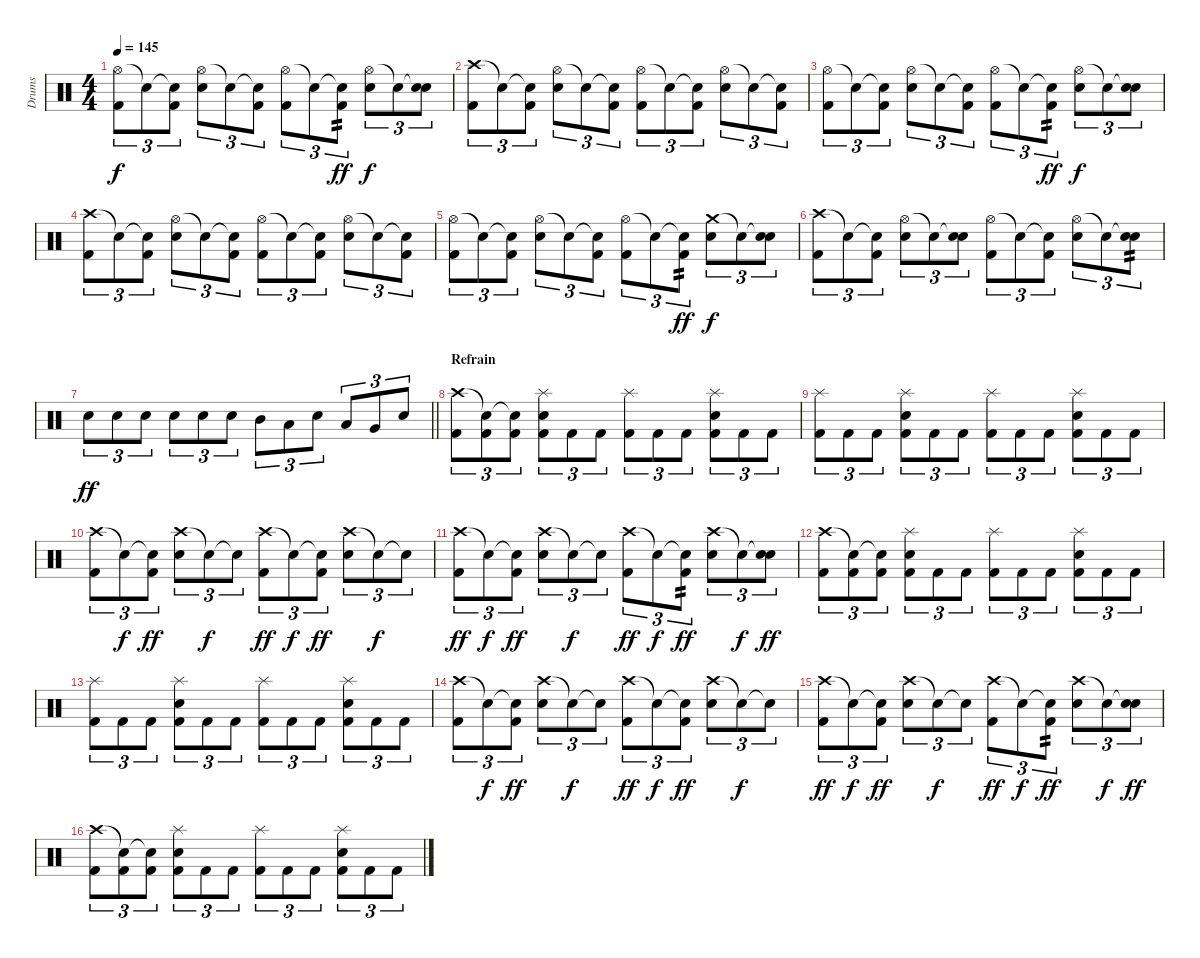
\track ("Drums" "Drums") {instrument percussion}
\staff {score}
\articulation defaults
\ts (4 4)
\tempo 145
\clef neutral
\ks c
("Hi-Hat (open)" "Kick (hit) 2").8{tu (3 2) dy f} "Snare (hit)"{t}.8{tu (3 2)} ("Snare (hit)"{t} "Kick (hit) 2").8{tu (3 2)} ("Hi-Hat (open)" "Snare (hit) 2").8{tu (3 2)} "Snare (hit)"{t}.8{tu (3 2)} ("Snare (hit)"{t} "Kick (hit) 2").8{tu (3 2)} ("Hi-Hat (open)" "Kick (hit) 2").8{tu (3 2)} "Snare (hit)"{t}.8{tu (3 2)} ("Snare (hit)"{t} "Kick (hit) 2").8{tu (3 2) tp 2 dy ff} ("Hi-Hat (open)" "Snare (hit) 2").8{tu (3 2) dy f} "Snare (hit)"{t}.8{tu (3 2)} ("Snare (hit)"{t} "Snare (hit) 2").8{tu (3 2)} |
("Crash high (hit)" "Kick (hit) 2").8{tu (3 2)} "Snare (hit)"{t}.8{tu (3 2)} ("Snare (hit)"{t} "Kick (hit) 2").8{tu (3 2)} ("Hi-Hat (open)" "Snare (hit) 2").8{tu (3 2)} "Snare (hit)"{t}.8{tu (3 2)} ("Snare (hit)"{t} "Kick (hit) 2").8{tu (3 2)} ("Hi-Hat (open)" "Kick (hit) 2").8{tu (3 2)} "Snare (hit)"{t}.8{tu (3 2)} ("Snare (hit)"{t} "Kick (hit) 2").8{tu (3 2)} ("Hi-Hat (open)" "Snare (hit) 2").8{tu (3 2)} "Snare (hit)"{t}.8{tu (3 2)} ("Snare (hit)"{t} "Kick (hit) 2").8{tu (3 2)} |
("Hi-Hat (open)" "Kick (hit) 2").8{tu (3 2)} "Snare (hit)"{t}.8{tu (3 2)} ("Snare (hit)"{t} "Kick (hit) 2").8{tu (3 2)} ("Hi-Hat (open)" "Snare (hit) 2").8{tu (3 2)} "Snare (hit)"{t}.8{tu (3 2)} ("Snare (hit)"{t} "Kick (hit) 2").8{tu (3 2)} ("Hi-Hat (open)" "Kick (hit) 2").8{tu (3 2)} "Snare (hit)"{t}.8{tu (3 2)} ("Snare (hit)"{t} "Kick (hit) 2").8{tu (3 2) tp 2 dy ff} ("Hi-Hat (open)" "Snare (hit) 2").8{tu (3 2) dy f} "Snare (hit)"{t}.8{tu (3 2)} ("Snare (hit)"{t} "Snare (hit) 2").8{tu (3 2)} |
("Crash high (hit)" "Kick (hit) 2").8{tu (3 2)} "Snare (hit)"{t}.8{tu (3 2)} ("Snare (hit)"{t} "Kick (hit) 2").8{tu (3 2)} ("Hi-Hat (open)" "Snare (hit) 2").8{tu (3 2)} "Snare (hit)"{t}.8{tu (3 2)} ("Snare (hit)"{t} "Kick (hit) 2").8{tu (3 2)} ("Hi-Hat (open)" "Kick (hit) 2").8{tu (3 2)} "Snare (hit)"{t}.8{tu (3 2)} ("Snare (hit)"{t} "Kick (hit) 2").8{tu (3 2)} ("Hi-Hat (open)" "Snare (hit) 2").8{tu (3 2)} "Snare (hit)"{t}.8{tu (3 2)} ("Snare (hit)"{t} "Kick (hit) 2").8{tu (3 2)} |
("Hi-Hat (open)" "Kick (hit) 2").8{tu (3 2)} "Snare (hit)"{t}.8{tu (3 2)} ("Snare (hit)"{t} "Kick (hit) 2").8{tu (3 2)} ("Hi-Hat (open)" "Snare (hit) 2").8{tu (3 2)} "Snare (hit)"{t}.8{tu (3 2)} ("Snare (hit)"{t} "Kick (hit) 2").8{tu (3 2)} ("Hi-Hat (open)" "Kick (hit) 2").8{tu (3 2)} "Snare (hit)"{t}.8{tu (3 2)} ("Snare (hit)"{t} "Kick (hit) 2").8{tu (3 2) tp 2 dy ff} ("Crash medium (hit)" "Snare (hit) 2").8{tu (3 2) dy f} "Snare (hit)"{t}.8{tu (3 2)} ("Snare (hit)"{t} "Snare (hit) 2").8{tu (3 2)} |
("Crash high (hit)" "Kick (hit) 2").8{tu (3 2)} "Snare (hit)"{t}.8{tu (3 2)} ("Snare (hit)"{t} "Kick (hit) 2").8{tu (3 2)} ("Hi-Hat (open)" "Snare (hit) 2").8{tu (3 2)} "Snare (hit)"{t}.8{tu (3 2)} ("Snare (hit)"{t} "Snare (hit) 2").8{tu (3 2)} ("Hi-Hat (open)" "Kick (hit) 2").8{tu (3 2)} "Snare (hit)"{t}.8{tu (3 2)} ("Snare (hit)"{t} "Kick (hit) 2").8{tu (3 2)} ("Hi-Hat (open)" "Snare (hit) 2").8{tu (3 2)} "Snare (hit)"{t}.8{tu (3 2)} ("Snare (hit)"{t} "Electric Snare (hit)").8{tu (3 2) tp 2} |
\barLineRight lightlight "Electric Snare (hit)".8{tu (3 2) dy ff} "Electric Snare (hit)".8{tu (3 2)} "Electric Snare (hit)".8{tu (3 2)} "Electric Snare (hit)".8{tu (3 2)} "Electric Snare (hit)".8{tu (3 2)} "Electric Snare (hit)".8{tu (3 2)} "Mid Tom (hit)".8{tu (3 2)} "Low Tom (hit)".8{tu (3 2)} "Electric Snare (hit)".8{tu (3 2)} "Low Tom (hit)".8{tu (3 2)} "Very Low Tom (hit)".8{tu (3 2)} "Electric Snare (hit)".8{tu (3 2)}
|
\section ("" "Refrain")
("Crash high (hit)" "Kick (hit) 2").8{tu (3 2)} ("Snare (hit)"{t} "Kick (hit) 2").8{tu (3 2)} ("Snare (hit)"{t} "Kick (hit) 2").8{tu (3 2)} ("Splash (hit)" "Snare (hit) 2" "Kick (hit) 2").8{tu (3 2)} "Kick (hit) 2".8{tu (3 2)} "Kick (hit) 2".8{tu (3 2)} ("Splash (hit)" "Kick (hit) 2").8{tu (3 2)} "Kick (hit) 2".8{tu (3 2)} "Kick (hit) 2".8{tu (3 2)} ("Splash (hit)" "Kick (hit) 2" "Snare (hit) 2").8{tu (3 2)} "Kick (hit) 2".8{tu (3 2)} "Kick (hit) 2".8{tu (3 2)} |
("Splash (hit)" "Kick (hit) 2").8{tu (3 2)} "Kick (hit) 2".8{tu (3 2)} "Kick (hit) 2".8{tu (3 2)} ("Splash (hit)" "Snare (hit) 2" "Kick (hit) 2").8{tu (3 2)} "Kick (hit) 2".8{tu (3 2)} "Kick (hit) 2".8{tu (3 2)} ("Splash (hit)" "Kick (hit) 2").8{tu (3 2)} "Kick (hit) 2".8{tu (3 2)} "Kick (hit) 2".8{tu (3 2)} ("Splash (hit)" "Kick (hit) 2" "Snare (hit) 2").8{tu (3 2)} "Kick (hit) 2".8{tu (3 2)} "Kick (hit) 2".8{tu (3 2)} |
("Crash high (hit)" "Kick (hit) 2").8{tu (3 2)} "Snare (hit)"{t}.8{tu (3 2) dy f} ("Snare (hit)"{t} "Kick (hit) 2").8{tu (3 2) dy ff} ("Crash high (hit)" "Snare (hit) 2").8{tu (3 2)} "Snare (hit)"{t}.8{tu (3 2) dy f} "Snare (hit)"{t}.8{tu (3 2)} ("Crash high (hit)" "Kick (hit) 2").8{tu (3 2) dy ff} "Snare (hit)"{t}.8{tu (3 2) dy f} ("Snare (hit)"{t} "Kick (hit) 2").8{tu (3 2) dy ff} ("Crash high (hit)" "Snare (hit) 2").8{tu (3 2)} "Snare (hit)"{t}.8{tu (3 2) dy f} "Snare (hit)"{t}.8{tu (3 2)} |
("Crash high (hit)" "Kick (hit) 2").8{tu (3 2) dy ff} "Snare (hit)"{t}.8{tu (3 2) dy f} ("Snare (hit)"{t} "Kick (hit) 2").8{tu (3 2) dy ff} ("Crash high (hit)" "Snare (hit) 2").8{tu (3 2)} "Snare (hit)"{t}.8{tu (3 2) dy f} "Snare (hit)"{t}.8{tu (3 2)} ("Crash high (hit)" "Kick (hit) 2").8{tu (3 2) dy ff} "Snare (hit)"{t}.8{tu (3 2) dy f} ("Snare (hit)"{t} "Kick (hit) 2").8{tu (3 2) tp 2 dy ff} ("Crash high (hit)" "Snare (hit) 2").8{tu (3 2)} "Snare (hit)"{t}.8{tu (3 2) dy f} ("Snare (hit)"{t} "Snare (hit) 2").8{tu (3 2) dy ff} |
("Crash high (hit)" "Kick (hit) 2").8{tu (3 2)} ("Snare (hit)"{t} "Kick (hit) 2").8{tu (3 2)} ("Snare (hit)"{t} "Kick (hit) 2").8{tu (3 2)} ("Splash (hit)" "Snare (hit) 2" "Kick (hit) 2").8{tu (3 2)} "Kick (hit) 2".8{tu (3 2)} "Kick (hit) 2".8{tu (3 2)} ("Splash (hit)" "Kick (hit) 2").8{tu (3 2)} "Kick (hit) 2".8{tu (3 2)} "Kick (hit) 2".8{tu (3 2)} ("Splash (hit)" "Kick (hit) 2" "Snare (hit) 2").8{tu (3 2)} "Kick (hit) 2".8{tu (3 2)} "Kick (hit) 2".8{tu (3 2)} |
("Splash (hit)" "Kick (hit) 2").8{tu (3 2)} "Kick (hit) 2".8{tu (3 2)} "Kick (hit) 2".8{tu (3 2)} ("Splash (hit)" "Snare (hit) 2" "Kick (hit) 2").8{tu (3 2)} "Kick (hit) 2".8{tu (3 2)} "Kick (hit) 2".8{tu (3 2)} ("Splash (hit)" "Kick (hit) 2").8{tu (3 2)} "Kick (hit) 2".8{tu (3 2)} "Kick (hit) 2".8{tu (3 2)} ("Splash (hit)" "Kick (hit) 2" "Snare (hit) 2").8{tu (3 2)} "Kick (hit) 2".8{tu (3 2)} "Kick (hit) 2".8{tu (3 2)} |
("Crash high (hit)" "Kick (hit) 2").8{tu (3 2)} "Snare (hit)"{t}.8{tu (3 2) dy f} ("Snare (hit)"{t} "Kick (hit) 2").8{tu (3 2) dy ff} ("Crash high (hit)" "Snare (hit) 2").8{tu (3 2)} "Snare (hit)"{t}.8{tu (3 2) dy f} "Snare (hit)"{t}.8{tu (3 2)} ("Crash high (hit)" "Kick (hit) 2").8{tu (3 2) dy ff} "Snare (hit)"{t}.8{tu (3 2) dy f} ("Snare (hit)"{t} "Kick (hit) 2").8{tu (3 2) dy ff} ("Crash high (hit)" "Snare (hit) 2").8{tu (3 2)} "Snare (hit)"{t}.8{tu (3 2) dy f} "Snare (hit)"{t}.8{tu (3 2)} |
("Crash high (hit)" "Kick (hit) 2").8{tu (3 2) dy ff} "Snare (hit)"{t}.8{tu (3 2) dy f} ("Snare (hit)"{t} "Kick (hit) 2").8{tu (3 2) dy ff} ("Crash high (hit)" "Snare (hit) 2").8{tu (3 2)} "Snare (hit)"{t}.8{tu (3 2) dy f} "Snare (hit)"{t}.8{tu (3 2)} ("Crash high (hit)" "Kick (hit) 2").8{tu (3 2) dy ff} "Snare (hit)"{t}.8{tu (3 2) dy f} ("Snare (hit)"{t} "Kick (hit) 2").8{tu (3 2) tp 2 dy ff} ("Crash high (hit)" "Snare (hit) 2").8{tu (3 2)} "Snare (hit)"{t}.8{tu (3 2) dy f} ("Snare (hit)"{t} "Snare (hit) 2").8{tu (3 2) dy ff} |
("Crash high (hit)" "Kick (hit) 2").8{tu (3 2)} ("Snare (hit)"{t} "Kick (hit) 2").8{tu (3 2)} ("Snare (hit)"{t} "Kick (hit) 2").8{tu (3 2)} ("Splash (hit)" "Snare (hit) 2" "Kick (hit) 2").8{tu (3 2)} "Kick (hit) 2".8{tu (3 2)} "Kick (hit) 2".8{tu (3 2)} ("Splash (hit)" "Kick (hit) 2").8{tu (3 2)} "Kick (hit) 2".8{tu (3 2)} "Kick (hit) 2".8{tu (3 2)} ("Splash (hit)" "Kick (hit) 2" "Snare (hit) 2").8{tu (3 2)} "Kick (hit) 2".8{tu (3 2)} "Kick (hit) 2".8{tu (3 2)}
